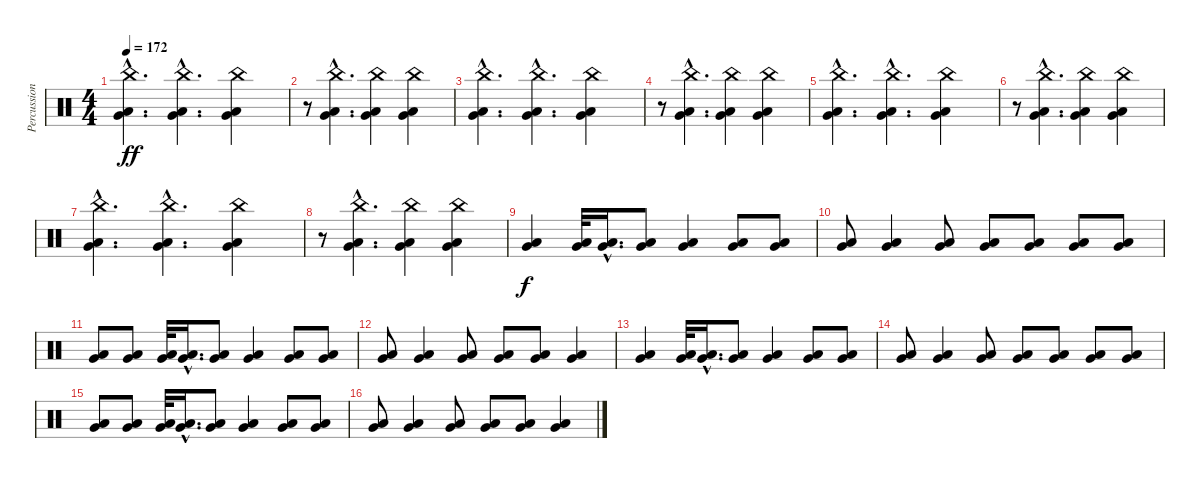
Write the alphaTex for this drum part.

\track ("Percussion / Drum Fills" "Percussion") {instrument percussion}
\staff {score}
\articulation defaults
\ts (4 4)
\tempo 172
\clef neutral
\ks c
("China (hit)"{hac} "Very Low Tom (hit)"{hac} "Low Floor Tom (hit)"{hac}).4{d dy ff} ("China (hit)"{hac} "Very Low Tom (hit)"{hac} "Low Floor Tom (hit)"{hac}).4{d} ("China (hit)" "Very Low Tom (hit)" "Low Floor Tom (hit)").4 |
r.8 ("China (hit)"{hac} "Very Low Tom (hit)"{hac} "Low Floor Tom (hit)"{hac}).4{d} ("China (hit)" "Very Low Tom (hit)" "Low Floor Tom (hit)").4 ("China (hit)" "Very Low Tom (hit)" "Low Floor Tom (hit)").4 |
("China (hit)"{hac} "Very Low Tom (hit)"{hac} "Low Floor Tom (hit)"{hac}).4{d} ("China (hit)"{hac} "Very Low Tom (hit)"{hac} "Low Floor Tom (hit)"{hac}).4{d} ("China (hit)" "Very Low Tom (hit)" "Low Floor Tom (hit)").4 |
r.8 ("China (hit)"{hac} "Very Low Tom (hit)"{hac} "Low Floor Tom (hit)"{hac}).4{d} ("China (hit)" "Very Low Tom (hit)" "Low Floor Tom (hit)").4 ("China (hit)" "Very Low Tom (hit)" "Low Floor Tom (hit)").4 |
("China (hit)"{hac} "Very Low Tom (hit)"{hac} "Low Floor Tom (hit)"{hac}).4{d} ("China (hit)"{hac} "Very Low Tom (hit)"{hac} "Low Floor Tom (hit)"{hac}).4{d} ("China (hit)" "Very Low Tom (hit)" "Low Floor Tom (hit)").4 |
r.8 ("China (hit)"{hac} "Very Low Tom (hit)"{hac} "Low Floor Tom (hit)"{hac}).4{d} ("China (hit)" "Very Low Tom (hit)" "Low Floor Tom (hit)").4 ("China (hit)" "Very Low Tom (hit)" "Low Floor Tom (hit)").4 |
("China (hit)"{hac} "Very Low Tom (hit)"{hac} "Low Floor Tom (hit)"{hac}).4{d} ("China (hit)"{hac} "Very Low Tom (hit)"{hac} "Low Floor Tom (hit)"{hac}).4{d} ("China (hit)" "Very Low Tom (hit)" "Low Floor Tom (hit)").4 |
r.8 ("China (hit)"{hac} "Very Low Tom (hit)"{hac} "Low Floor Tom (hit)"{hac}).4{d} ("China (hit)" "Very Low Tom (hit)" "Low Floor Tom (hit)").4 ("China (hit)" "Very Low Tom (hit)" "Low Floor Tom (hit)").4 |
("Very Low Tom (hit)" "Low Floor Tom (hit)").4{dy f} ("Very Low Tom (hit)" "Low Floor Tom (hit)").32 ("Very Low Tom (hit)"{hac} "Low Floor Tom (hit)"{hac}).16{d} ("Very Low Tom (hit)" "Low Floor Tom (hit)").8 ("Very Low Tom (hit)" "Low Floor Tom (hit)").4 ("Very Low Tom (hit)" "Low Floor Tom (hit)").8 ("Very Low Tom (hit)" "Low Floor Tom (hit)").8 |
("Very Low Tom (hit)" "Low Floor Tom (hit)").8 ("Very Low Tom (hit)" "Low Floor Tom (hit)").4 ("Very Low Tom (hit)" "Low Floor Tom (hit)").8 ("Very Low Tom (hit)" "Low Floor Tom (hit)").8 ("Very Low Tom (hit)" "Low Floor Tom (hit)").8 ("Very Low Tom (hit)" "Low Floor Tom (hit)").8 ("Very Low Tom (hit)" "Low Floor Tom (hit)").8 |
("Very Low Tom (hit)" "Low Floor Tom (hit)").8 ("Very Low Tom (hit)" "Low Floor Tom (hit)").8 ("Very Low Tom (hit)" "Low Floor Tom (hit)").32 ("Very Low Tom (hit)"{hac} "Low Floor Tom (hit)"{hac}).16{d} ("Very Low Tom (hit)" "Low Floor Tom (hit)").8 ("Very Low Tom (hit)" "Low Floor Tom (hit)").4 ("Very Low Tom (hit)" "Low Floor Tom (hit)").8 ("Very Low Tom (hit)" "Low Floor Tom (hit)").8 |
("Very Low Tom (hit)" "Low Floor Tom (hit)").8 ("Very Low Tom (hit)" "Low Floor Tom (hit)").4 ("Very Low Tom (hit)" "Low Floor Tom (hit)").8 ("Very Low Tom (hit)" "Low Floor Tom (hit)").8 ("Very Low Tom (hit)" "Low Floor Tom (hit)").8 ("Very Low Tom (hit)" "Low Floor Tom (hit)").4 |
("Very Low Tom (hit)" "Low Floor Tom (hit)").4 ("Very Low Tom (hit)" "Low Floor Tom (hit)").32 ("Very Low Tom (hit)"{hac} "Low Floor Tom (hit)"{hac}).16{d} ("Very Low Tom (hit)" "Low Floor Tom (hit)").8 ("Very Low Tom (hit)" "Low Floor Tom (hit)").4 ("Very Low Tom (hit)" "Low Floor Tom (hit)").8 ("Very Low Tom (hit)" "Low Floor Tom (hit)").8 |
("Very Low Tom (hit)" "Low Floor Tom (hit)").8 ("Very Low Tom (hit)" "Low Floor Tom (hit)").4 ("Very Low Tom (hit)" "Low Floor Tom (hit)").8 ("Very Low Tom (hit)" "Low Floor Tom (hit)").8 ("Very Low Tom (hit)" "Low Floor Tom (hit)").8 ("Very Low Tom (hit)" "Low Floor Tom (hit)").8 ("Very Low Tom (hit)" "Low Floor Tom (hit)").8 |
("Very Low Tom (hit)" "Low Floor Tom (hit)").8 ("Very Low Tom (hit)" "Low Floor Tom (hit)").8 ("Very Low Tom (hit)" "Low Floor Tom (hit)").32 ("Very Low Tom (hit)"{hac} "Low Floor Tom (hit)"{hac}).16{d} ("Very Low Tom (hit)" "Low Floor Tom (hit)").8 ("Very Low Tom (hit)" "Low Floor Tom (hit)").4 ("Very Low Tom (hit)" "Low Floor Tom (hit)").8 ("Very Low Tom (hit)" "Low Floor Tom (hit)").8 |
("Very Low Tom (hit)" "Low Floor Tom (hit)").8 ("Very Low Tom (hit)" "Low Floor Tom (hit)").4 ("Very Low Tom (hit)" "Low Floor Tom (hit)").8 ("Very Low Tom (hit)" "Low Floor Tom (hit)").8 ("Very Low Tom (hit)" "Low Floor Tom (hit)").8 ("Very Low Tom (hit)" "Low Floor Tom (hit)").4
